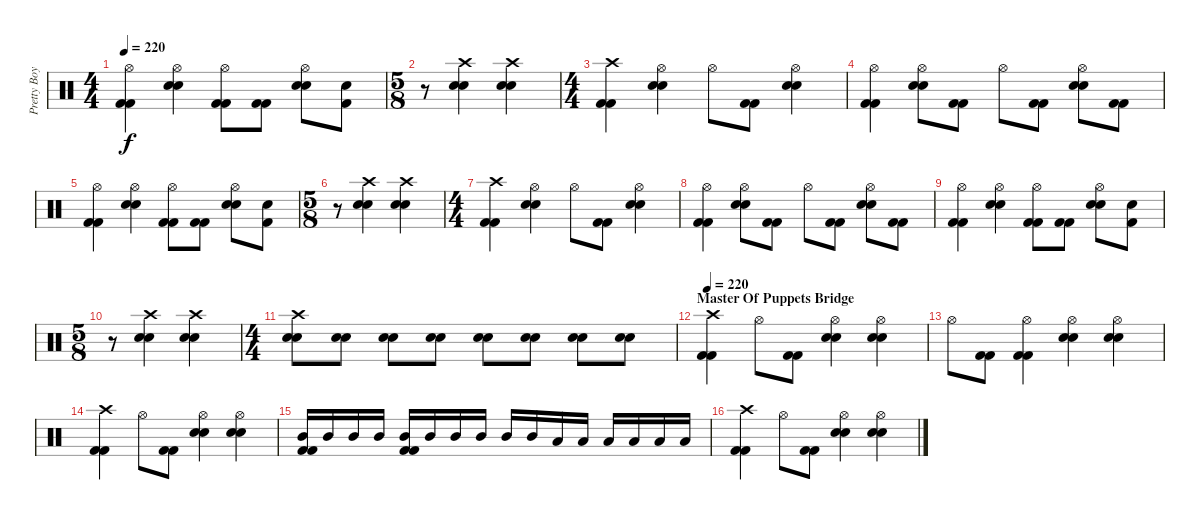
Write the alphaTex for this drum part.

\track ("Pretty Boy Geoff (Lars Drums)" "Pretty Boy") {instrument percussion}
\staff {score}
\articulation defaults
\ts (4 4)
\tempo 220
\clef neutral
\ks c
("Hi-Hat (open)" "Kick (hit) 2" "Kick (hit) 2").4{dy f} ("Hi-Hat (open)" "Electric Snare (hit)" "Electric Snare (hit)").4 ("Hi-Hat (open)" "Kick (hit) 2" "Kick (hit) 2").8 ("Kick (hit) 2" "Kick (hit) 2").8 ("Hi-Hat (open)" "Electric Snare (hit)" "Electric Snare (hit)").8 ("Kick (hit) 2" "Snare (hit)").8 |
\ts (5 8)
r.8 ("Crash high (hit)" "Electric Snare (hit)" "Electric Snare (hit)").4 ("Crash high (hit)" "Electric Snare (hit)" "Electric Snare (hit)").4 |
\ts (4 4)
("Crash high (hit)" "Kick (hit) 2" "Kick (hit) 2").4 ("Hi-Hat (open)" "Electric Snare (hit)" "Electric Snare (hit)").4 "Hi-Hat (open)".8 ("Kick (hit) 2" "Kick (hit) 2").8 ("Hi-Hat (open)" "Electric Snare (hit)" "Electric Snare (hit)").4 |
("Hi-Hat (open)" "Kick (hit) 2" "Kick (hit) 2").4 ("Hi-Hat (open)" "Electric Snare (hit)" "Electric Snare (hit)").8 ("Kick (hit) 2" "Kick (hit) 2").8 "Hi-Hat (open)".8 ("Kick (hit) 2" "Kick (hit) 2").8 ("Hi-Hat (open)" "Electric Snare (hit)" "Electric Snare (hit)").8 ("Kick (hit) 2" "Kick (hit) 2").8 |
("Hi-Hat (open)" "Kick (hit) 2" "Kick (hit) 2").4 ("Hi-Hat (open)" "Electric Snare (hit)" "Electric Snare (hit)").4 ("Hi-Hat (open)" "Kick (hit) 2" "Kick (hit) 2").8 ("Kick (hit) 2" "Kick (hit) 2").8 ("Hi-Hat (open)" "Electric Snare (hit)" "Electric Snare (hit)").8 ("Kick (hit) 2" "Snare (hit)").8 |
\ts (5 8)
r.8 ("Crash high (hit)" "Electric Snare (hit)" "Electric Snare (hit)").4 ("Crash high (hit)" "Electric Snare (hit)" "Electric Snare (hit)").4 |
\ts (4 4)
("Crash high (hit)" "Kick (hit) 2" "Kick (hit) 2").4 ("Hi-Hat (open)" "Electric Snare (hit)" "Electric Snare (hit)").4 "Hi-Hat (open)".8 ("Kick (hit) 2" "Kick (hit) 2").8 ("Hi-Hat (open)" "Electric Snare (hit)" "Electric Snare (hit)").4 |
("Hi-Hat (open)" "Kick (hit) 2" "Kick (hit) 2").4 ("Hi-Hat (open)" "Electric Snare (hit)" "Electric Snare (hit)").8 ("Kick (hit) 2" "Kick (hit) 2").8 "Hi-Hat (open)".8 ("Kick (hit) 2" "Kick (hit) 2").8 ("Hi-Hat (open)" "Electric Snare (hit)" "Electric Snare (hit)").8 ("Kick (hit) 2" "Kick (hit) 2").8 |
("Hi-Hat (open)" "Kick (hit) 2" "Kick (hit) 2").4 ("Hi-Hat (open)" "Electric Snare (hit)" "Electric Snare (hit)").4 ("Hi-Hat (open)" "Kick (hit) 2" "Kick (hit) 2").8 ("Kick (hit) 2" "Kick (hit) 2").8 ("Hi-Hat (open)" "Electric Snare (hit)" "Electric Snare (hit)").8 ("Kick (hit) 2" "Snare (hit)").8 |
\ts (5 8)
r.8 ("Crash high (hit)" "Electric Snare (hit)" "Electric Snare (hit)").4 ("Crash high (hit)" "Electric Snare (hit)" "Electric Snare (hit)").4 |
\ts (4 4)
("Crash high (hit)" "Electric Snare (hit)" "Electric Snare (hit)").8 ("Electric Snare (hit)" "Electric Snare (hit)").8 ("Electric Snare (hit)" "Electric Snare (hit)").8 ("Electric Snare (hit)" "Electric Snare (hit)").8 ("Electric Snare (hit)" "Electric Snare (hit)").8 ("Electric Snare (hit)" "Electric Snare (hit)").8 ("Electric Snare (hit)" "Electric Snare (hit)").8 ("Electric Snare (hit)" "Electric Snare (hit)").8 |
\section ("" "Master Of Puppets Bridge")
\tempo 220
("Crash high (hit)" "Kick (hit) 2" "Kick (hit) 2").4 "Hi-Hat (open)".8 ("Kick (hit) 2" "Kick (hit) 2").8 ("Hi-Hat (open)" "Electric Snare (hit)" "Electric Snare (hit)").4 ("Hi-Hat (open)" "Electric Snare (hit)" "Electric Snare (hit)").4 |
"Hi-Hat (open)".8 ("Kick (hit) 2" "Kick (hit) 2").8 ("Hi-Hat (open)" "Kick (hit) 2" "Kick (hit) 2").4 ("Hi-Hat (open)" "Electric Snare (hit)" "Electric Snare (hit)").4 ("Hi-Hat (open)" "Electric Snare (hit)" "Electric Snare (hit)").4 |
("Crash high (hit)" "Kick (hit) 2" "Kick (hit) 2").4 "Hi-Hat (open)".8 ("Kick (hit) 2" "Kick (hit) 2").8 ("Hi-Hat (open)" "Electric Snare (hit)" "Electric Snare (hit)").4 ("Hi-Hat (open)" "Electric Snare (hit)" "Electric Snare (hit)").4 |
("Mid Tom (hit)" "Kick (hit) 2" "Kick (hit) 2").16 "Mid Tom (hit)".16 "Mid Tom (hit)".16 "Mid Tom (hit)".16 ("Mid Tom (hit)" "Kick (hit) 2" "Kick (hit) 2").16 "Mid Tom (hit)".16 "Mid Tom (hit)".16 "Mid Tom (hit)".16 "Mid Tom (hit)".16 "Mid Tom (hit)".16 "Low Tom (hit)".16 "Low Tom (hit)".16 "Low Tom (hit)".16 "Low Tom (hit)".16 "Low Tom (hit)".16 "Low Tom (hit)".16 |
("Crash high (hit)" "Kick (hit) 2" "Kick (hit) 2").4 "Hi-Hat (open)".8 ("Kick (hit) 2" "Kick (hit) 2").8 ("Hi-Hat (open)" "Electric Snare (hit)" "Electric Snare (hit)").4 ("Hi-Hat (open)" "Electric Snare (hit)" "Electric Snare (hit)").4
